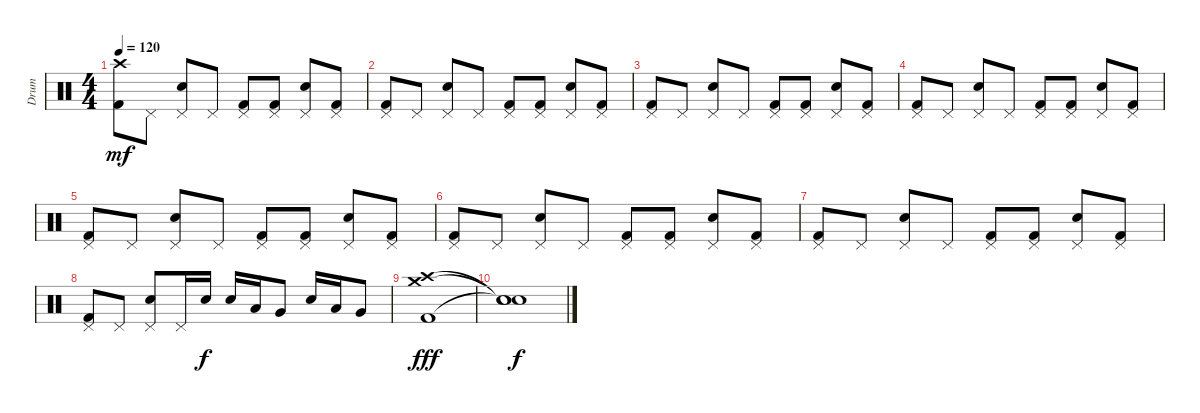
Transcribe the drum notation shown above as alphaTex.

\track ("Drum" "Drum") {instrument percussion}
\staff {score}
\articulation defaults
\ts (4 4)
\tempo 120
\clef neutral
\ks c
("Crash high (hit)" "Kick (hit) 2").8{dy mf} "Pedal Hi-Hat (hit)".8 ("Pedal Hi-Hat (hit)" "Electric Snare (hit)").8 "Pedal Hi-Hat (hit)".8 ("Pedal Hi-Hat (hit)" "Kick (hit) 2").8 ("Pedal Hi-Hat (hit)" "Kick (hit) 2").8 ("Pedal Hi-Hat (hit)" "Electric Snare (hit)").8 ("Pedal Hi-Hat (hit)" "Kick (hit) 2").8 |
("Pedal Hi-Hat (hit)" "Kick (hit) 2").8 "Pedal Hi-Hat (hit)".8 ("Pedal Hi-Hat (hit)" "Electric Snare (hit)").8 "Pedal Hi-Hat (hit)".8 ("Pedal Hi-Hat (hit)" "Kick (hit) 2").8 ("Pedal Hi-Hat (hit)" "Kick (hit) 2").8 ("Pedal Hi-Hat (hit)" "Electric Snare (hit)").8 ("Pedal Hi-Hat (hit)" "Kick (hit) 2").8 |
("Pedal Hi-Hat (hit)" "Kick (hit) 2").8 "Pedal Hi-Hat (hit)".8 ("Pedal Hi-Hat (hit)" "Electric Snare (hit)").8 "Pedal Hi-Hat (hit)".8 ("Pedal Hi-Hat (hit)" "Kick (hit) 2").8 ("Pedal Hi-Hat (hit)" "Kick (hit) 2").8 ("Pedal Hi-Hat (hit)" "Electric Snare (hit)").8 ("Pedal Hi-Hat (hit)" "Kick (hit) 2").8 |
("Pedal Hi-Hat (hit)" "Kick (hit) 2").8 "Pedal Hi-Hat (hit)".8 ("Pedal Hi-Hat (hit)" "Electric Snare (hit)").8 "Pedal Hi-Hat (hit)".8 ("Pedal Hi-Hat (hit)" "Kick (hit) 2").8 ("Pedal Hi-Hat (hit)" "Kick (hit) 2").8 ("Pedal Hi-Hat (hit)" "Electric Snare (hit)").8 ("Pedal Hi-Hat (hit)" "Kick (hit) 2").8 |
("Pedal Hi-Hat (hit)" "Kick (hit) 2").8 "Pedal Hi-Hat (hit)".8 ("Pedal Hi-Hat (hit)" "Electric Snare (hit)").8 "Pedal Hi-Hat (hit)".8 ("Pedal Hi-Hat (hit)" "Kick (hit) 2").8 ("Pedal Hi-Hat (hit)" "Kick (hit) 2").8 ("Pedal Hi-Hat (hit)" "Electric Snare (hit)").8 ("Pedal Hi-Hat (hit)" "Kick (hit) 2").8 |
("Pedal Hi-Hat (hit)" "Kick (hit) 2").8 "Pedal Hi-Hat (hit)".8 ("Pedal Hi-Hat (hit)" "Electric Snare (hit)").8 "Pedal Hi-Hat (hit)".8 ("Pedal Hi-Hat (hit)" "Kick (hit) 2").8 ("Pedal Hi-Hat (hit)" "Kick (hit) 2").8 ("Pedal Hi-Hat (hit)" "Electric Snare (hit)").8 ("Pedal Hi-Hat (hit)" "Kick (hit) 2").8 |
("Pedal Hi-Hat (hit)" "Kick (hit) 2").8 "Pedal Hi-Hat (hit)".8 ("Pedal Hi-Hat (hit)" "Electric Snare (hit)").8 "Pedal Hi-Hat (hit)".8 ("Pedal Hi-Hat (hit)" "Kick (hit) 2").8 ("Pedal Hi-Hat (hit)" "Kick (hit) 2").8 ("Pedal Hi-Hat (hit)" "Electric Snare (hit)").8 ("Pedal Hi-Hat (hit)" "Kick (hit) 2").8 |
("Pedal Hi-Hat (hit)" "Kick (hit) 2").8 "Pedal Hi-Hat (hit)".8 ("Pedal Hi-Hat (hit)" "Electric Snare (hit)").8 "Pedal Hi-Hat (hit)".16 "Electric Snare (hit)".16{dy f} "Electric Snare (hit)".16 "Low Tom (hit)".16 "Very Low Tom (hit)".8 "Electric Snare (hit)".16 "Low Tom (hit)".16 "Very Low Tom (hit)".8 |
("Crash high (hit)" "Kick (hit) 2" "Crash medium (hit)").1{dy fff} |
("Snare (hit)"{t} "Snare (hit)"{t} "Snare (hit)"{t}).1{dy f}
